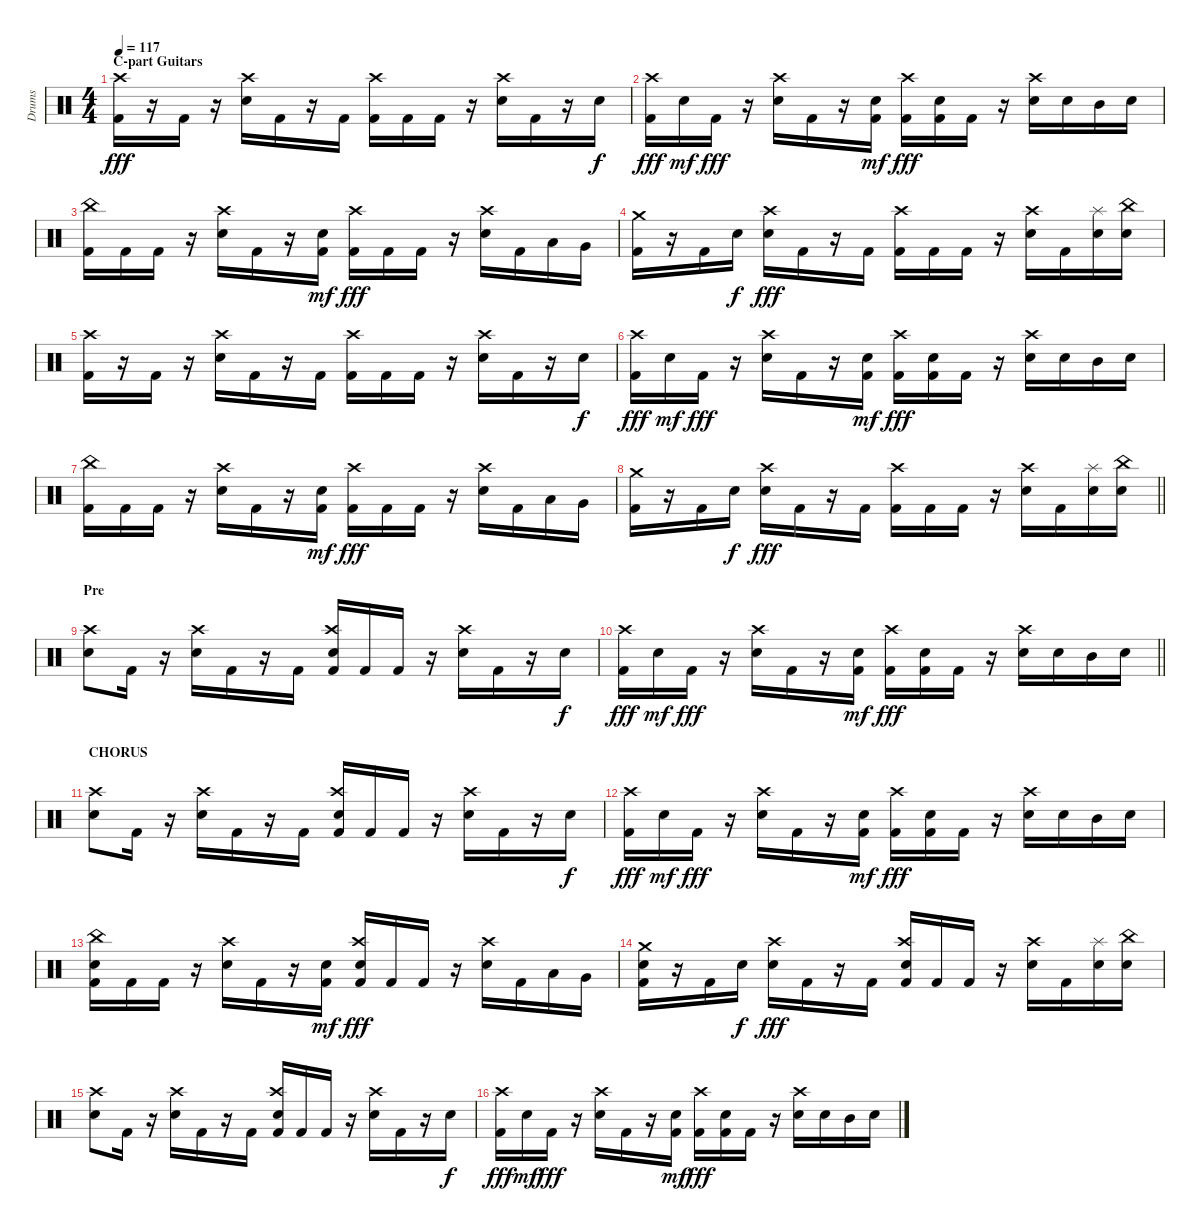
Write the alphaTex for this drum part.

\track ("Drums" "Drums") {instrument percussion}
\staff {score}
\articulation defaults
\ts (4 4)
\section ("" "C-part Guitars")
\tempo 117
\clef neutral
\ks c
("Kick (hit) 2" "Crash high (hit)").16{dy fff} r.16 "Kick (hit) 2".16 r.16 ("Snare (hit) 2" "Crash high (hit)").16 "Kick (hit) 2".16 r.16 "Kick (hit) 2".16 ("Kick (hit) 2" "Crash high (hit)").16 "Kick (hit) 2".16 "Kick (hit) 2".16 r.16 ("Snare (hit) 2" "Crash high (hit)").16 "Kick (hit) 2".16 r.16 "Snare (hit) 2".16{dy f} |
("Kick (hit) 2" "Crash high (hit)").16{dy fff} "Snare (hit) 2".16{dy mf} "Kick (hit) 2".16{dy fff} r.16 ("Snare (hit) 2" "Crash high (hit)").16 "Kick (hit) 2".16 r.16 ("Kick (hit) 2" "Snare (hit) 2").16{dy mf} ("Kick (hit) 2" "Crash high (hit)").16{dy fff} ("Kick (hit) 2" "Snare (hit) 2").16 "Kick (hit) 2".16 r.16 ("Snare (hit) 2" "Crash high (hit)").16 "Snare (hit) 2".16 "Mid Tom (hit)".16 "Snare (hit) 2".16 |
("Kick (hit) 2" "China (hit)").16 "Kick (hit) 2".16 "Kick (hit) 2".16 r.16 ("Snare (hit) 2" "Crash high (hit)").16 "Kick (hit) 2".16 r.16 ("Kick (hit) 2" "Snare (hit) 2").16{dy mf} ("Kick (hit) 2" "Crash high (hit)").16{dy fff} "Kick (hit) 2".16 "Kick (hit) 2".16 r.16 ("Snare (hit) 2" "Crash high (hit)").16 "Kick (hit) 2".16 "Low Tom (hit)".16 "Very Low Tom (hit)".16 |
("Kick (hit) 2" "Crash medium (hit)").16 r.16 "Kick (hit) 2".16 "Snare (hit) 2".16{dy f} ("Snare (hit) 2" "Crash high (hit)").16{dy fff} "Kick (hit) 2".16 r.16 "Kick (hit) 2".16 ("Kick (hit) 2" "Crash high (hit)").16 "Kick (hit) 2".16 "Kick (hit) 2".16 r.16 ("Snare (hit) 2" "Crash high (hit)").16 "Kick (hit) 2".16 ("Snare (hit) 2" "Splash (hit)").16 ("Snare (hit) 2" "China (hit)").16 |
("Kick (hit) 2" "Crash high (hit)").16 r.16 "Kick (hit) 2".16 r.16 ("Snare (hit) 2" "Crash high (hit)").16 "Kick (hit) 2".16 r.16 "Kick (hit) 2".16 ("Kick (hit) 2" "Crash high (hit)").16 "Kick (hit) 2".16 "Kick (hit) 2".16 r.16 ("Snare (hit) 2" "Crash high (hit)").16 "Kick (hit) 2".16 r.16 "Snare (hit) 2".16{dy f} |
("Kick (hit) 2" "Crash high (hit)").16{dy fff} "Snare (hit) 2".16{dy mf} "Kick (hit) 2".16{dy fff} r.16 ("Snare (hit) 2" "Crash high (hit)").16 "Kick (hit) 2".16 r.16 ("Kick (hit) 2" "Snare (hit) 2").16{dy mf} ("Kick (hit) 2" "Crash high (hit)").16{dy fff} ("Kick (hit) 2" "Snare (hit) 2").16 "Kick (hit) 2".16 r.16 ("Snare (hit) 2" "Crash high (hit)").16 "Snare (hit) 2".16 "Mid Tom (hit)".16 "Snare (hit) 2".16 |
("Kick (hit) 2" "China (hit)").16 "Kick (hit) 2".16 "Kick (hit) 2".16 r.16 ("Snare (hit) 2" "Crash high (hit)").16 "Kick (hit) 2".16 r.16 ("Kick (hit) 2" "Snare (hit) 2").16{dy mf} ("Kick (hit) 2" "Crash high (hit)").16{dy fff} "Kick (hit) 2".16 "Kick (hit) 2".16 r.16 ("Snare (hit) 2" "Crash high (hit)").16 "Kick (hit) 2".16 "Low Tom (hit)".16 "Very Low Tom (hit)".16 |
\barLineRight lightlight
("Kick (hit) 2" "Crash medium (hit)").16 r.16 "Kick (hit) 2".16 "Snare (hit) 2".16{dy f} ("Snare (hit) 2" "Crash high (hit)").16{dy fff} "Kick (hit) 2".16 r.16 "Kick (hit) 2".16 ("Kick (hit) 2" "Crash high (hit)").16 "Kick (hit) 2".16 "Kick (hit) 2".16 r.16 ("Snare (hit) 2" "Crash high (hit)").16 "Kick (hit) 2".16 ("Snare (hit) 2" "Splash (hit)").16 ("Snare (hit) 2" "China (hit)").16 |
\section ("" "Pre")
("Snare (hit) 2" "Crash high (hit)").8 "Kick (hit) 2".16 r.16 ("Snare (hit) 2" "Crash high (hit)").16 "Kick (hit) 2".16 r.16 "Kick (hit) 2".16 ("Kick (hit) 2" "Snare (hit) 2" "Crash high (hit)").16 "Kick (hit) 2".16 "Kick (hit) 2".16 r.16 ("Snare (hit) 2" "Crash high (hit)").16 "Kick (hit) 2".16 r.16 "Snare (hit) 2".16{dy f} |
\barLineRight lightlight
("Kick (hit) 2" "Crash high (hit)").16{dy fff} "Snare (hit) 2".16{dy mf} "Kick (hit) 2".16{dy fff} r.16 ("Snare (hit) 2" "Crash high (hit)").16 "Kick (hit) 2".16 r.16 ("Kick (hit) 2" "Snare (hit) 2").16{dy mf} ("Kick (hit) 2" "Crash high (hit)").16{dy fff} ("Kick (hit) 2" "Snare (hit) 2").16 "Kick (hit) 2".16 r.16 ("Snare (hit) 2" "Crash high (hit)").16 "Snare (hit) 2".16 "Mid Tom (hit)".16 "Snare (hit) 2".16 |
\section ("" "CHORUS")
("Snare (hit) 2" "Crash high (hit)").8 "Kick (hit) 2".16 r.16 ("Snare (hit) 2" "Crash high (hit)").16 "Kick (hit) 2".16 r.16 "Kick (hit) 2".16 ("Kick (hit) 2" "Snare (hit) 2" "Crash high (hit)").16 "Kick (hit) 2".16 "Kick (hit) 2".16 r.16 ("Snare (hit) 2" "Crash high (hit)").16 "Kick (hit) 2".16 r.16 "Snare (hit) 2".16{dy f} |
("Kick (hit) 2" "Crash high (hit)").16{dy fff} "Snare (hit) 2".16{dy mf} "Kick (hit) 2".16{dy fff} r.16 ("Snare (hit) 2" "Crash high (hit)").16 "Kick (hit) 2".16 r.16 ("Kick (hit) 2" "Snare (hit) 2").16{dy mf} ("Kick (hit) 2" "Crash high (hit)").16{dy fff} ("Kick (hit) 2" "Snare (hit) 2").16 "Kick (hit) 2".16 r.16 ("Snare (hit) 2" "Crash high (hit)").16 "Snare (hit) 2".16 "Mid Tom (hit)".16 "Snare (hit) 2".16 |
("Kick (hit) 2" "Snare (hit) 2" "China (hit)").16 "Kick (hit) 2".16 "Kick (hit) 2".16 r.16 ("Snare (hit) 2" "Crash high (hit)").16 "Kick (hit) 2".16 r.16 ("Kick (hit) 2" "Snare (hit) 2").16{dy mf} ("Kick (hit) 2" "Snare (hit) 2" "Crash high (hit)").16{dy fff} "Kick (hit) 2".16 "Kick (hit) 2".16 r.16 ("Snare (hit) 2" "Crash high (hit)").16 "Kick (hit) 2".16 "Low Tom (hit)".16 "Very Low Tom (hit)".16 |
("Kick (hit) 2" "Snare (hit) 2" "Crash medium (hit)").16 r.16 "Kick (hit) 2".16 "Snare (hit) 2".16{dy f} ("Snare (hit) 2" "Crash high (hit)").16{dy fff} "Kick (hit) 2".16 r.16 "Kick (hit) 2".16 ("Kick (hit) 2" "Snare (hit) 2" "Crash high (hit)").16 "Kick (hit) 2".16 "Kick (hit) 2".16 r.16 ("Snare (hit) 2" "Crash high (hit)").16 "Kick (hit) 2".16 ("Snare (hit) 2" "Splash (hit)").16 ("Snare (hit) 2" "China (hit)").16 |
("Snare (hit) 2" "Crash high (hit)").8 "Kick (hit) 2".16 r.16 ("Snare (hit) 2" "Crash high (hit)").16 "Kick (hit) 2".16 r.16 "Kick (hit) 2".16 ("Kick (hit) 2" "Snare (hit) 2" "Crash high (hit)").16 "Kick (hit) 2".16 "Kick (hit) 2".16 r.16 ("Snare (hit) 2" "Crash high (hit)").16 "Kick (hit) 2".16 r.16 "Snare (hit) 2".16{dy f} |
("Kick (hit) 2" "Crash high (hit)").16{dy fff} "Snare (hit) 2".16{dy mf} "Kick (hit) 2".16{dy fff} r.16 ("Snare (hit) 2" "Crash high (hit)").16 "Kick (hit) 2".16 r.16 ("Kick (hit) 2" "Snare (hit) 2").16{dy mf} ("Kick (hit) 2" "Crash high (hit)").16{dy fff} ("Kick (hit) 2" "Snare (hit) 2").16 "Kick (hit) 2".16 r.16 ("Snare (hit) 2" "Crash high (hit)").16 "Snare (hit) 2".16 "Mid Tom (hit)".16 "Snare (hit) 2".16
